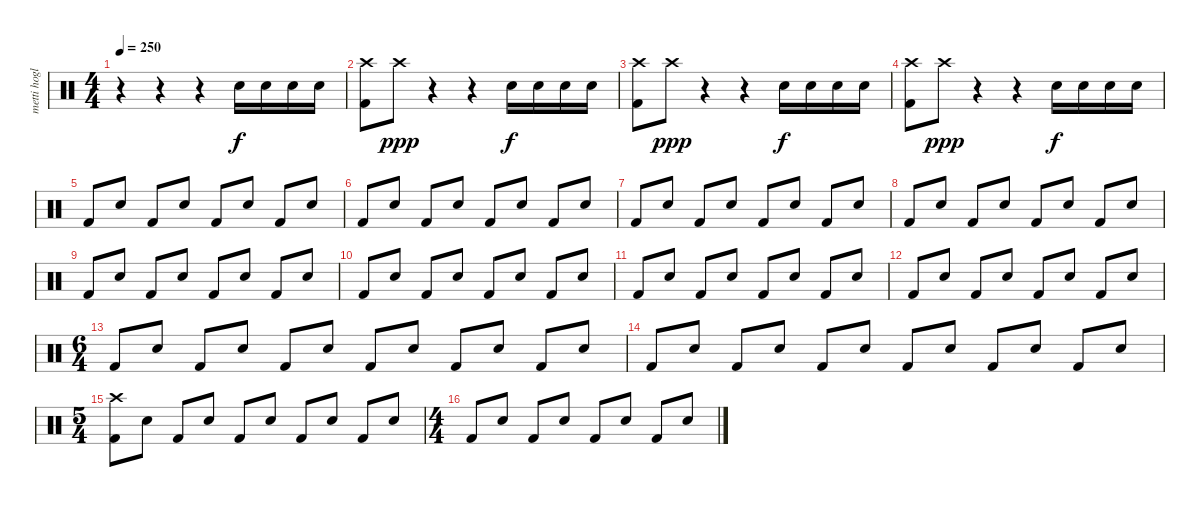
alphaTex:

\track ("metti hoglan" "metti hogl") {instrument percussion}
\staff {score}
\articulation defaults
\ts (4 4)
\tempo 250
\clef neutral
\ks c
r.4{dy f} r.4 r.4 "Snare (hit) 2".16 "Snare (hit) 2".16 "Snare (hit) 2".16 "Snare (hit) 2".16 |
("Crash high (hit)" "Kick (hit) 2").8 "Crash high (hit)".8{dy ppp} r.4 r.4 "Snare (hit) 2".16{dy f} "Snare (hit) 2".16 "Snare (hit) 2".16 "Snare (hit) 2".16 |
("Crash high (hit)" "Kick (hit) 2").8 "Crash high (hit)".8{dy ppp} r.4 r.4 "Snare (hit) 2".16{dy f} "Snare (hit) 2".16 "Snare (hit) 2".16 "Snare (hit) 2".16 |
("Crash high (hit)" "Kick (hit) 2").8 "Crash high (hit)".8{dy ppp} r.4 r.4 "Snare (hit) 2".16{dy f} "Snare (hit) 2".16 "Snare (hit) 2".16 "Snare (hit) 2".16 |
"Kick (hit) 2".8 "Snare (hit) 2".8 "Kick (hit) 2".8 "Snare (hit) 2".8 "Kick (hit) 2".8 "Snare (hit) 2".8 "Kick (hit) 2".8 "Snare (hit) 2".8 |
"Kick (hit) 2".8 "Snare (hit) 2".8 "Kick (hit) 2".8 "Snare (hit) 2".8 "Kick (hit) 2".8 "Snare (hit) 2".8 "Kick (hit) 2".8 "Snare (hit) 2".8 |
"Kick (hit) 2".8 "Snare (hit) 2".8 "Kick (hit) 2".8 "Snare (hit) 2".8 "Kick (hit) 2".8 "Snare (hit) 2".8 "Kick (hit) 2".8 "Snare (hit) 2".8 |
"Kick (hit) 2".8 "Snare (hit) 2".8 "Kick (hit) 2".8 "Snare (hit) 2".8 "Kick (hit) 2".8 "Snare (hit) 2".8 "Kick (hit) 2".8 "Snare (hit) 2".8 |
"Kick (hit) 2".8 "Snare (hit) 2".8 "Kick (hit) 2".8 "Snare (hit) 2".8 "Kick (hit) 2".8 "Snare (hit) 2".8 "Kick (hit) 2".8 "Snare (hit) 2".8 |
"Kick (hit) 2".8 "Snare (hit) 2".8 "Kick (hit) 2".8 "Snare (hit) 2".8 "Kick (hit) 2".8 "Snare (hit) 2".8 "Kick (hit) 2".8 "Snare (hit) 2".8 |
"Kick (hit) 2".8 "Snare (hit) 2".8 "Kick (hit) 2".8 "Snare (hit) 2".8 "Kick (hit) 2".8 "Snare (hit) 2".8 "Kick (hit) 2".8 "Snare (hit) 2".8 |
"Kick (hit) 2".8 "Snare (hit) 2".8 "Kick (hit) 2".8 "Snare (hit) 2".8 "Kick (hit) 2".8 "Snare (hit) 2".8 "Kick (hit) 2".8 "Snare (hit) 2".8 |
\ts (6 4)
"Kick (hit) 2".8 "Snare (hit) 2".8 "Kick (hit) 2".8 "Snare (hit) 2".8 "Kick (hit) 2".8 "Snare (hit) 2".8 "Kick (hit) 2".8 "Snare (hit) 2".8 "Kick (hit) 2".8 "Snare (hit) 2".8 "Kick (hit) 2".8 "Snare (hit) 2".8 |
"Kick (hit) 2".8 "Snare (hit) 2".8 "Kick (hit) 2".8 "Snare (hit) 2".8 "Kick (hit) 2".8 "Snare (hit) 2".8 "Kick (hit) 2".8 "Snare (hit) 2".8 "Kick (hit) 2".8 "Snare (hit) 2".8 "Kick (hit) 2".8 "Snare (hit) 2".8 |
\ts (5 4)
("Crash high (hit)" "Kick (hit) 2").8 "Snare (hit) 2".8 "Kick (hit) 2".8 "Snare (hit) 2".8 "Kick (hit) 2".8 "Snare (hit) 2".8 "Kick (hit) 2".8 "Snare (hit) 2".8 "Kick (hit) 2".8 "Snare (hit) 2".8 |
\ts (4 4)
"Kick (hit) 2".8 "Snare (hit) 2".8 "Kick (hit) 2".8 "Snare (hit) 2".8 "Kick (hit) 2".8 "Snare (hit) 2".8 "Kick (hit) 2".8 "Snare (hit) 2".8
